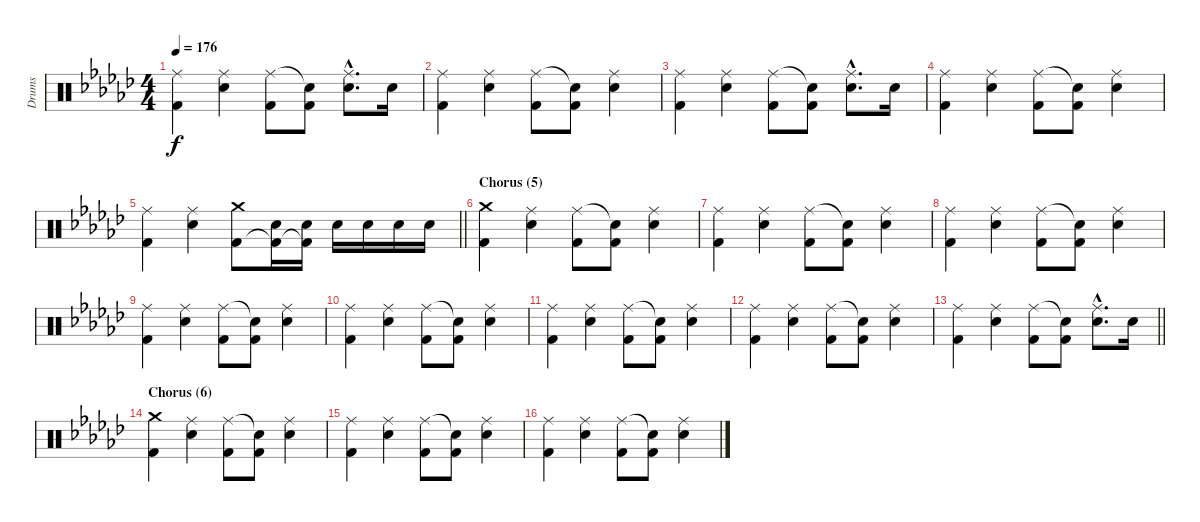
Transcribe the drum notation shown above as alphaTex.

\track ("Drums" "Drums") {instrument percussion}
\staff {score}
\articulation defaults
\ts (4 4)
\tempo 176
\clef neutral
\ks ebminor
("Ride (middle)" "Kick (hit) 2").4{dy f} ("Ride (middle)" "Electric Snare (hit)").4 ("Ride (middle)" "Kick (hit) 2").8 ("Snare (hit)"{t} "Kick (hit) 2").8 ("Ride (middle)"{hac} "Electric Snare (hit)"{hac}).8{d} "Electric Snare (hit)".16 |
("Ride (middle)" "Kick (hit) 2").4 ("Ride (middle)" "Electric Snare (hit)").4 ("Ride (middle)" "Kick (hit) 2").8 ("Snare (hit)"{t} "Kick (hit) 2").8 ("Ride (middle)" "Electric Snare (hit)").4 |
("Ride (middle)" "Kick (hit) 2").4 ("Ride (middle)" "Electric Snare (hit)").4 ("Ride (middle)" "Kick (hit) 2").8 ("Snare (hit)"{t} "Kick (hit) 2").8 ("Ride (middle)"{hac} "Electric Snare (hit)"{hac}).8{d} "Electric Snare (hit)".16 |
("Ride (middle)" "Kick (hit) 2").4 ("Ride (middle)" "Electric Snare (hit)").4 ("Ride (middle)" "Kick (hit) 2").8 ("Snare (hit)"{t} "Kick (hit) 2").8 ("Ride (middle)" "Electric Snare (hit)").4 |
\barLineRight lightlight
("Ride (middle)" "Kick (hit) 2").4 ("Ride (middle)" "Electric Snare (hit)").4 ("Crash medium (hit)" "Kick (hit) 2").8 ("Electric Snare (hit)" "Kick (hit) 2"{t}).16 ("Electric Snare (hit)" "Kick (hit) 2"{t}).16 "Electric Snare (hit)".16 "Electric Snare (hit)".16 "Electric Snare (hit)".16 "Electric Snare (hit)".16 |
\section ("" "Chorus (5)")
("Crash medium (hit)" "Kick (hit) 2").4 ("Ride (middle)" "Electric Snare (hit)").4 ("Ride (middle)" "Kick (hit) 2").8 ("Snare (hit)"{t} "Kick (hit) 2").8 ("Ride (middle)" "Electric Snare (hit)").4 |
("Ride (middle)" "Kick (hit) 2").4 ("Ride (middle)" "Electric Snare (hit)").4 ("Ride (middle)" "Kick (hit) 2").8 ("Snare (hit)"{t} "Kick (hit) 2").8 ("Ride (middle)" "Electric Snare (hit)").4 |
("Ride (middle)" "Kick (hit) 2").4 ("Ride (middle)" "Electric Snare (hit)").4 ("Ride (middle)" "Kick (hit) 2").8 ("Snare (hit)"{t} "Kick (hit) 2").8 ("Ride (middle)" "Electric Snare (hit)").4 |
("Ride (middle)" "Kick (hit) 2").4 ("Ride (middle)" "Electric Snare (hit)").4 ("Ride (middle)" "Kick (hit) 2").8 ("Snare (hit)"{t} "Kick (hit) 2").8 ("Ride (middle)" "Electric Snare (hit)").4 |
("Ride (middle)" "Kick (hit) 2").4 ("Ride (middle)" "Electric Snare (hit)").4 ("Ride (middle)" "Kick (hit) 2").8 ("Snare (hit)"{t} "Kick (hit) 2").8 ("Ride (middle)" "Electric Snare (hit)").4 |
("Ride (middle)" "Kick (hit) 2").4 ("Ride (middle)" "Electric Snare (hit)").4 ("Ride (middle)" "Kick (hit) 2").8 ("Snare (hit)"{t} "Kick (hit) 2").8 ("Ride (middle)" "Electric Snare (hit)").4 |
("Ride (middle)" "Kick (hit) 2").4 ("Ride (middle)" "Electric Snare (hit)").4 ("Ride (middle)" "Kick (hit) 2").8 ("Snare (hit)"{t} "Kick (hit) 2").8 ("Ride (middle)" "Electric Snare (hit)").4 |
\barLineRight lightlight
("Ride (middle)" "Kick (hit) 2").4 ("Ride (middle)" "Electric Snare (hit)").4 ("Ride (middle)" "Kick (hit) 2").8 ("Snare (hit)"{t} "Kick (hit) 2").8 ("Ride (middle)"{hac} "Electric Snare (hit)"{hac}).8{d} "Electric Snare (hit)".16 |
\section ("" "Chorus (6)")
("Crash medium (hit)" "Kick (hit) 2").4 ("Ride (middle)" "Electric Snare (hit)").4 ("Ride (middle)" "Kick (hit) 2").8 ("Snare (hit)"{t} "Kick (hit) 2").8 ("Ride (middle)" "Electric Snare (hit)").4 |
("Ride (middle)" "Kick (hit) 2").4 ("Ride (middle)" "Electric Snare (hit)").4 ("Ride (middle)" "Kick (hit) 2").8 ("Snare (hit)"{t} "Kick (hit) 2").8 ("Ride (middle)" "Electric Snare (hit)").4 |
("Ride (middle)" "Kick (hit) 2").4 ("Ride (middle)" "Electric Snare (hit)").4 ("Ride (middle)" "Kick (hit) 2").8 ("Snare (hit)"{t} "Kick (hit) 2").8 ("Ride (middle)" "Electric Snare (hit)").4
